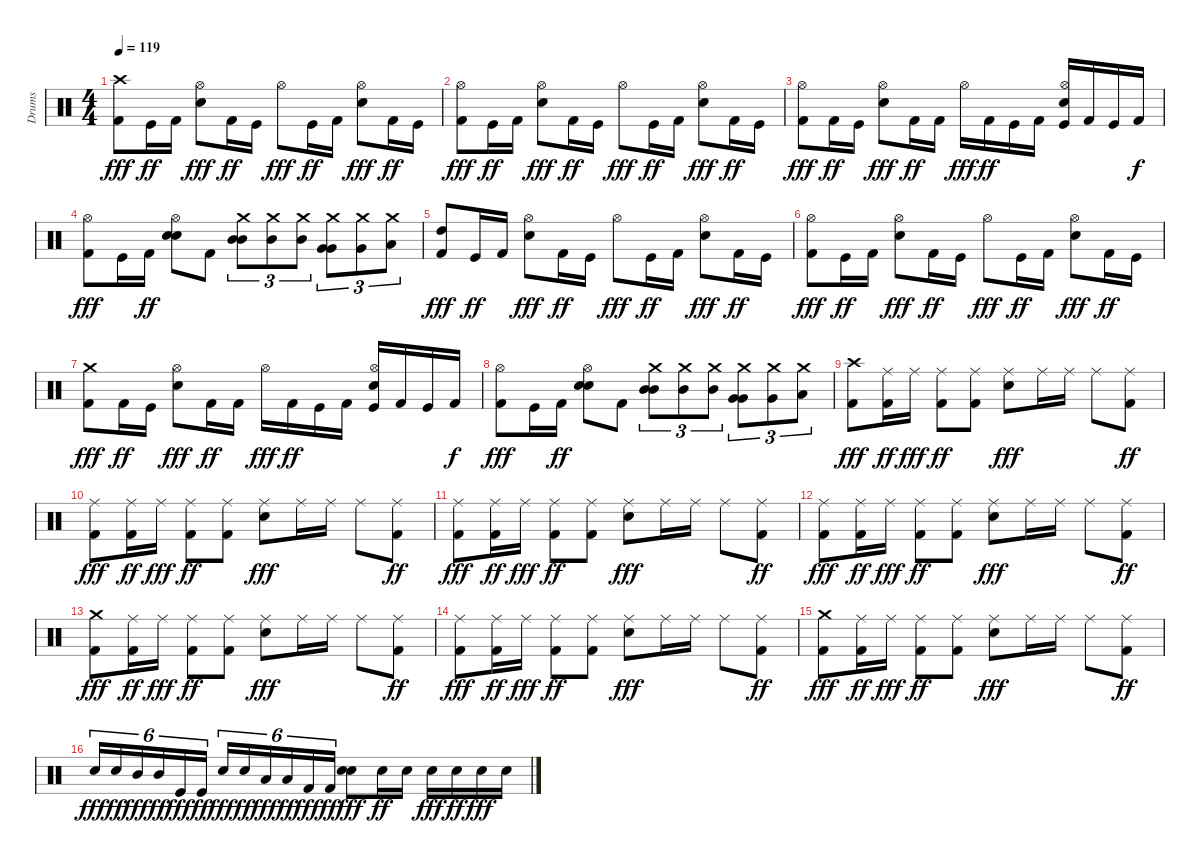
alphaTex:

\track ("Drums" "Drums") {instrument percussion}
\staff {score}
\articulation defaults
\ts (4 4)
\tempo 119
\clef neutral
\ks c
("Kick (hit) 2" "Crash high (hit)").8{dy fff} "Kick (hit)".16{dy ff} "Kick (hit) 2".16 ("Hi-Hat (open)" "Snare (hit) 2").8{dy fff} "Kick (hit) 2".16{dy ff} "Kick (hit)".16 "Hi-Hat (open)".8{dy fff} "Kick (hit)".16{dy ff} "Kick (hit) 2".16 ("Hi-Hat (open)" "Snare (hit) 2").8{dy fff} "Kick (hit) 2".16{dy ff} "Kick (hit)".16 |
("Hi-Hat (open)" "Kick (hit) 2").8{dy fff} "Kick (hit)".16{dy ff} "Kick (hit) 2".16 ("Hi-Hat (open)" "Snare (hit) 2").8{dy fff} "Kick (hit) 2".16{dy ff} "Kick (hit)".16 "Hi-Hat (open)".8{dy fff} "Kick (hit)".16{dy ff} "Kick (hit) 2".16 ("Hi-Hat (open)" "Snare (hit) 2").8{dy fff} "Kick (hit) 2".16{dy ff} "Kick (hit)".16 |
("Hi-Hat (open)" "Kick (hit) 2").8{dy fff} "Kick (hit) 2".16{dy ff} "Kick (hit)".16 ("Hi-Hat (open)" "Snare (hit) 2").8{dy fff} "Kick (hit) 2".16{dy ff} "Kick (hit) 2".16 "Hi-Hat (open)".16{dy fff} "Kick (hit) 2".16{dy ff} "Kick (hit)".16 "Kick (hit) 2".16 ("Hi-Hat (open)" "Snare (hit) 2" "Kick (hit)").16 "Kick (hit) 2".16 "Kick (hit)".16 "Kick (hit) 2".16{dy f} |
("Hi-Hat (open)" "Kick (hit) 2").8{dy fff} "Kick (hit)".16 "Kick (hit) 2".16{dy ff} ("Hi-Hat (open)" "Snare (hit) 2" "Snare (hit) 2").8 "Kick (hit) 2".8 ("Mid Tom (hit)" "Crash medium (hit)" "Mid Tom (hit)").8{tu (3 2)} ("Mid Tom (hit)" "Crash medium (hit)").8{tu (3 2)} ("Mid Tom (hit)" "Crash medium (hit)").8{tu (3 2)} ("Very Low Tom (hit)" "Crash medium (hit)" "Very Low Tom (hit)").8{tu (3 2)} ("Very Low Tom (hit)" "Crash medium (hit)").8{tu (3 2)} ("Low Floor Tom (hit)" "Crash medium (hit)").8{tu (3 2)} |
("Kick (hit) 2" "High Tom (hit)").8{dy fff} "Kick (hit)".16{dy ff} "Kick (hit) 2".16 ("Hi-Hat (open)" "Snare (hit) 2").8{dy fff} "Kick (hit) 2".16{dy ff} "Kick (hit)".16 "Hi-Hat (open)".8{dy fff} "Kick (hit)".16{dy ff} "Kick (hit) 2".16 ("Hi-Hat (open)" "Snare (hit) 2").8{dy fff} "Kick (hit) 2".16{dy ff} "Kick (hit)".16 |
("Hi-Hat (open)" "Kick (hit) 2").8{dy fff} "Kick (hit)".16{dy ff} "Kick (hit) 2".16 ("Hi-Hat (open)" "Snare (hit) 2").8{dy fff} "Kick (hit) 2".16{dy ff} "Kick (hit)".16 "Hi-Hat (open)".8{dy fff} "Kick (hit)".16{dy ff} "Kick (hit) 2".16 ("Hi-Hat (open)" "Snare (hit) 2").8{dy fff} "Kick (hit) 2".16{dy ff} "Kick (hit)".16 |
("Kick (hit) 2" "Crash medium (hit)").8{dy fff} "Kick (hit) 2".16{dy ff} "Kick (hit)".16 ("Hi-Hat (open)" "Snare (hit) 2").8{dy fff} "Kick (hit) 2".16{dy ff} "Kick (hit) 2".16 "Hi-Hat (open)".16{dy fff} "Kick (hit) 2".16{dy ff} "Kick (hit)".16 "Kick (hit) 2".16 ("Hi-Hat (open)" "Snare (hit) 2" "Kick (hit)").16 "Kick (hit) 2".16 "Kick (hit)".16 "Kick (hit) 2".16{dy f} |
("Hi-Hat (open)" "Kick (hit) 2").8{dy fff} "Kick (hit)".16 "Kick (hit) 2".16{dy ff} ("Hi-Hat (open)" "Snare (hit) 2" "Snare (hit) 2").8 "Kick (hit) 2".8 ("Mid Tom (hit)" "Crash medium (hit)" "Mid Tom (hit)").8{tu (3 2)} ("Mid Tom (hit)" "Crash medium (hit)").8{tu (3 2)} ("Mid Tom (hit)" "Crash medium (hit)").8{tu (3 2)} ("Very Low Tom (hit)" "Crash medium (hit)" "Very Low Tom (hit)").8{tu (3 2)} ("Very Low Tom (hit)" "Crash medium (hit)").8{tu (3 2)} ("Low Floor Tom (hit)" "Crash medium (hit)").8{tu (3 2)} |
("Kick (hit) 2" "Crash high (hit)").8{dy fff} ("Ride (middle)" "Kick (hit) 2").16{dy ff} "Ride (middle)".16{dy fff} ("Ride (middle)" "Kick (hit) 2").8{dy ff} ("Ride (middle)" "Kick (hit) 2").8 ("Ride (middle)" "Snare (hit) 2").8{dy fff} "Ride (middle)".16 "Ride (middle)".16 "Ride (middle)".8 ("Ride (middle)" "Kick (hit) 2").8{dy ff} |
("Ride (middle)" "Kick (hit) 2").8{dy fff} ("Ride (middle)" "Kick (hit) 2").16{dy ff} "Ride (middle)".16{dy fff} ("Ride (middle)" "Kick (hit) 2").8{dy ff} ("Ride (middle)" "Kick (hit) 2").8 ("Ride (middle)" "Snare (hit) 2").8{dy fff} "Ride (middle)".16 "Ride (middle)".16 "Ride (middle)".8 ("Ride (middle)" "Kick (hit) 2").8{dy ff} |
("Ride (middle)" "Kick (hit) 2").8{dy fff} ("Ride (middle)" "Kick (hit) 2").16{dy ff} "Ride (middle)".16{dy fff} ("Ride (middle)" "Kick (hit) 2").8{dy ff} ("Ride (middle)" "Kick (hit) 2").8 ("Ride (middle)" "Snare (hit) 2").8{dy fff} "Ride (middle)".16 "Ride (middle)".16 "Ride (middle)".8 ("Ride (middle)" "Kick (hit) 2").8{dy ff} |
("Ride (middle)" "Kick (hit) 2").8{dy fff} ("Ride (middle)" "Kick (hit) 2").16{dy ff} "Ride (middle)".16{dy fff} ("Ride (middle)" "Kick (hit) 2").8{dy ff} ("Ride (middle)" "Kick (hit) 2").8 ("Ride (middle)" "Snare (hit) 2").8{dy fff} "Ride (middle)".16 "Ride (middle)".16 "Ride (middle)".8 ("Ride (middle)" "Kick (hit) 2").8{dy ff} |
("Kick (hit) 2" "Crash medium (hit)").8{dy fff} ("Ride (middle)" "Kick (hit) 2").16{dy ff} "Ride (middle)".16{dy fff} ("Ride (middle)" "Kick (hit) 2").8{dy ff} ("Ride (middle)" "Kick (hit) 2").8 ("Ride (middle)" "Snare (hit) 2").8{dy fff} "Ride (middle)".16 "Ride (middle)".16 "Ride (middle)".8 ("Ride (middle)" "Kick (hit) 2").8{dy ff} |
("Ride (middle)" "Kick (hit) 2").8{dy fff} ("Ride (middle)" "Kick (hit) 2").16{dy ff} "Ride (middle)".16{dy fff} ("Ride (middle)" "Kick (hit) 2").8{dy ff} ("Ride (middle)" "Kick (hit) 2").8 ("Ride (middle)" "Snare (hit) 2").8{dy fff} "Ride (middle)".16 "Ride (middle)".16 "Ride (middle)".8 ("Ride (middle)" "Kick (hit) 2").8{dy ff} |
("Kick (hit) 2" "Crash medium (hit)").8{dy fff} ("Ride (middle)" "Kick (hit) 2").16{dy ff} "Ride (middle)".16{dy fff} ("Ride (middle)" "Kick (hit) 2").8{dy ff} ("Ride (middle)" "Kick (hit) 2").8 ("Ride (middle)" "Snare (hit) 2").8{dy fff} "Ride (middle)".16 "Ride (middle)".16 "Ride (middle)".8 ("Ride (middle)" "Kick (hit) 2").8{dy ff} |
"Electric Snare (hit)".16{tu (6 4) dy fff} "Electric Snare (hit)".16{tu (6 4) dy ff} "Mid Tom (hit)".16{tu (6 4) dy fff} "Mid Tom (hit)".16{tu (6 4) dy ff} "Kick (hit)".16{tu (6 4) dy fff} "Kick (hit)".16{tu (6 4) dy ff} "Snare (hit) 2".16{tu (6 4) dy fff} "Electric Snare (hit)".16{tu (6 4) dy ff} "Low Tom (hit)".16{tu (6 4) dy fff} "Low Tom (hit)".16{tu (6 4) dy ff} "Kick (hit) 2".16{tu (6 4) dy fff} "Kick (hit) 2".16{tu (6 4) dy ff} ("Snare (hit) 2" "Snare (hit) 2").8{dy fff} "Snare (hit) 2".16{dy ff} "Snare (hit) 2".16 "Snare (hit) 2".16{dy fff} "Snare (hit) 2".16{dy ff} "Snare (hit) 2".16{dy fff} "Snare (hit) 2".16
